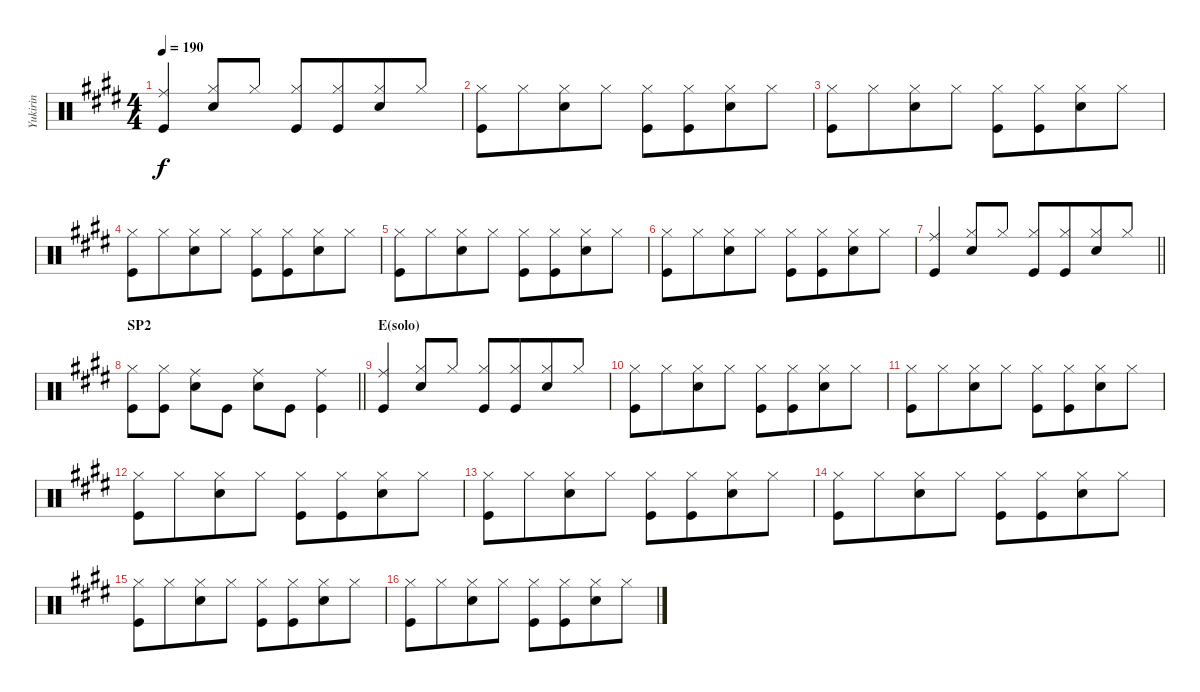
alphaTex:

\track ("Yukirin" "Yukirin") {mute instrument percussion}
\staff {score}
\articulation defaults
\ts (4 4)
\tempo 190
\clef neutral
\ks e
("Ride (middle)" "Kick (hit)").4{dy f beam Up} ("Hi-Hat (closed)" "Snare (hit) 2").8{beam Up} "Hi-Hat (closed)".8{beam Up} ("Hi-Hat (closed)" "Kick (hit)").8{beam Up} ("Hi-Hat (closed)" "Kick (hit)").8{beam Up beam merge} ("Hi-Hat (closed)" "Snare (hit) 2").8{beam Up} "Hi-Hat (closed)".8{beam Up} |
("Hi-Hat (closed)" "Kick (hit)").8 "Hi-Hat (closed)".8{beam merge} ("Hi-Hat (closed)" "Snare (hit) 2").8 "Hi-Hat (closed)".8 ("Hi-Hat (closed)" "Kick (hit)").8 ("Hi-Hat (closed)" "Kick (hit)").8{beam merge} ("Hi-Hat (closed)" "Snare (hit) 2").8 "Hi-Hat (closed)".8 |
("Hi-Hat (closed)" "Kick (hit)").8 "Hi-Hat (closed)".8{beam merge} ("Hi-Hat (closed)" "Snare (hit) 2").8 "Hi-Hat (closed)".8 ("Hi-Hat (closed)" "Kick (hit)").8 ("Hi-Hat (closed)" "Kick (hit)").8{beam merge} ("Hi-Hat (closed)" "Snare (hit) 2").8 "Hi-Hat (closed)".8 |
("Hi-Hat (closed)" "Kick (hit)").8 "Hi-Hat (closed)".8{beam merge} ("Hi-Hat (closed)" "Snare (hit) 2").8 "Hi-Hat (closed)".8 ("Hi-Hat (closed)" "Kick (hit)").8 ("Hi-Hat (closed)" "Kick (hit)").8{beam merge} ("Hi-Hat (closed)" "Snare (hit) 2").8 "Hi-Hat (closed)".8 |
("Hi-Hat (closed)" "Kick (hit)").8 "Hi-Hat (closed)".8{beam merge} ("Hi-Hat (closed)" "Snare (hit) 2").8 "Hi-Hat (closed)".8 ("Hi-Hat (closed)" "Kick (hit)").8 ("Hi-Hat (closed)" "Kick (hit)").8{beam merge} ("Hi-Hat (closed)" "Snare (hit) 2").8 "Hi-Hat (closed)".8 |
("Hi-Hat (closed)" "Kick (hit)").8 "Hi-Hat (closed)".8{beam merge} ("Hi-Hat (closed)" "Snare (hit) 2").8 "Hi-Hat (closed)".8 ("Hi-Hat (closed)" "Kick (hit)").8 ("Hi-Hat (closed)" "Kick (hit)").8{beam merge} ("Hi-Hat (closed)" "Snare (hit) 2").8 "Hi-Hat (closed)".8 |
\barLineRight lightlight
("Ride (middle)" "Kick (hit)").4{beam Up} ("Hi-Hat (closed)" "Snare (hit) 2").8{beam Up} "Hi-Hat (closed)".8{beam Up} ("Hi-Hat (closed)" "Kick (hit)").8{beam Up} ("Hi-Hat (closed)" "Kick (hit)").8{beam Up beam merge} ("Hi-Hat (closed)" "Snare (hit) 2").8{beam Up} "Hi-Hat (closed)".8{beam Up} |
\section ("" "SP2")
\barLineRight lightlight
("Hi-Hat (closed)" "Kick (hit)").8 ("Hi-Hat (closed)" "Kick (hit)").8 ("Ride (middle)" "Snare (hit) 2").8 "Kick (hit)".8 ("Ride (middle)" "Snare (hit) 2").8 "Kick (hit)".8 ("Ride (middle)" "Kick (hit)").4 |
\section ("" "E(solo)")
("Ride (middle)" "Kick (hit)").4{beam Up} ("Hi-Hat (closed)" "Snare (hit) 2").8{beam Up} "Hi-Hat (closed)".8{beam Up} ("Hi-Hat (closed)" "Kick (hit)").8{beam Up} ("Hi-Hat (closed)" "Kick (hit)").8{beam Up beam merge} ("Hi-Hat (closed)" "Snare (hit) 2").8{beam Up} "Hi-Hat (closed)".8{beam Up} |
("Hi-Hat (closed)" "Kick (hit)").8 "Hi-Hat (closed)".8{beam merge} ("Hi-Hat (closed)" "Snare (hit) 2").8 "Hi-Hat (closed)".8 ("Hi-Hat (closed)" "Kick (hit)").8 ("Hi-Hat (closed)" "Kick (hit)").8{beam merge} ("Hi-Hat (closed)" "Snare (hit) 2").8 "Hi-Hat (closed)".8 |
("Hi-Hat (closed)" "Kick (hit)").8 "Hi-Hat (closed)".8{beam merge} ("Hi-Hat (closed)" "Snare (hit) 2").8 "Hi-Hat (closed)".8 ("Hi-Hat (closed)" "Kick (hit)").8 ("Hi-Hat (closed)" "Kick (hit)").8{beam merge} ("Hi-Hat (closed)" "Snare (hit) 2").8 "Hi-Hat (closed)".8 |
("Hi-Hat (closed)" "Kick (hit)").8 "Hi-Hat (closed)".8{beam merge} ("Hi-Hat (closed)" "Snare (hit) 2").8 "Hi-Hat (closed)".8 ("Hi-Hat (closed)" "Kick (hit)").8 ("Hi-Hat (closed)" "Kick (hit)").8{beam merge} ("Hi-Hat (closed)" "Snare (hit) 2").8 "Hi-Hat (closed)".8 |
("Hi-Hat (closed)" "Kick (hit)").8 "Hi-Hat (closed)".8{beam merge} ("Hi-Hat (closed)" "Snare (hit) 2").8 "Hi-Hat (closed)".8 ("Hi-Hat (closed)" "Kick (hit)").8 ("Hi-Hat (closed)" "Kick (hit)").8{beam merge} ("Hi-Hat (closed)" "Snare (hit) 2").8 "Hi-Hat (closed)".8 |
("Hi-Hat (closed)" "Kick (hit)").8 "Hi-Hat (closed)".8{beam merge} ("Hi-Hat (closed)" "Snare (hit) 2").8 "Hi-Hat (closed)".8 ("Hi-Hat (closed)" "Kick (hit)").8 ("Hi-Hat (closed)" "Kick (hit)").8{beam merge} ("Hi-Hat (closed)" "Snare (hit) 2").8 "Hi-Hat (closed)".8 |
("Hi-Hat (closed)" "Kick (hit)").8 "Hi-Hat (closed)".8{beam merge} ("Hi-Hat (closed)" "Snare (hit) 2").8 "Hi-Hat (closed)".8 ("Hi-Hat (closed)" "Kick (hit)").8 ("Hi-Hat (closed)" "Kick (hit)").8{beam merge} ("Hi-Hat (closed)" "Snare (hit) 2").8 "Hi-Hat (closed)".8 |
("Hi-Hat (closed)" "Kick (hit)").8 "Hi-Hat (closed)".8{beam merge} ("Hi-Hat (closed)" "Snare (hit) 2").8 "Hi-Hat (closed)".8 ("Hi-Hat (closed)" "Kick (hit)").8 ("Hi-Hat (closed)" "Kick (hit)").8{beam merge} ("Hi-Hat (closed)" "Snare (hit) 2").8 "Hi-Hat (closed)".8
